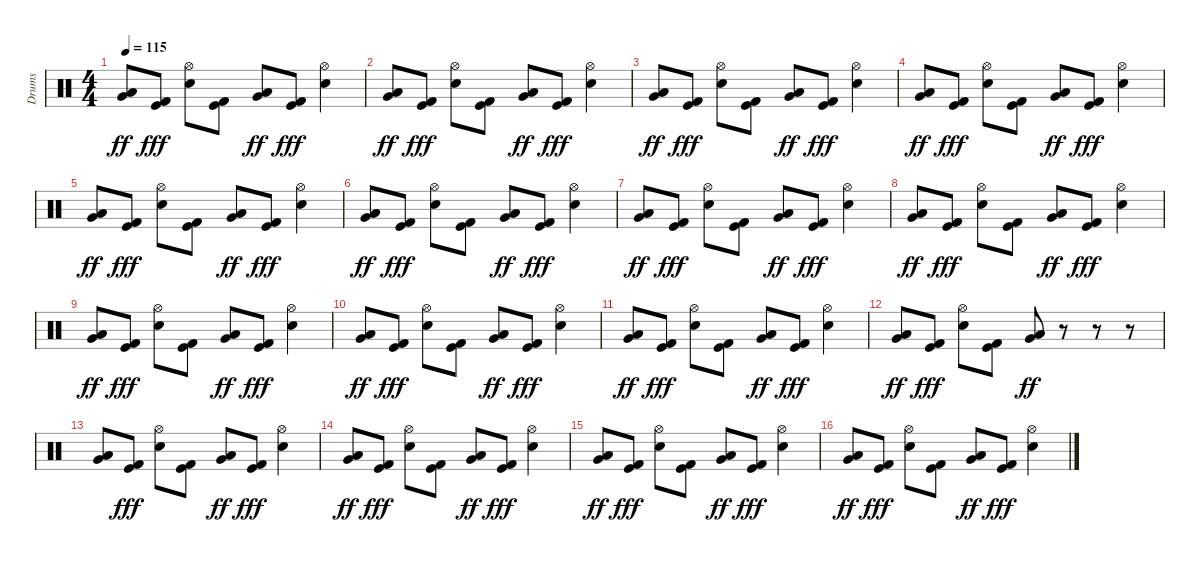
\track ("Drums" "Drums") {instrument percussion}
\staff {score}
\articulation defaults
\ts (4 4)
\tempo 115
\clef neutral
\ks c
("Low Tom (hit)" "Very Low Tom (hit)").8{bd 120 dy ff} ("Kick (hit)" "Kick (hit) 2").8{dy fff} ("Hi-Hat (open)" "Electric Snare (hit)").8 ("Kick (hit)" "Kick (hit) 2").8 ("Low Tom (hit)" "Very Low Tom (hit)").8{bd 120 dy ff} ("Kick (hit)" "Kick (hit) 2").8{dy fff} ("Hi-Hat (open)" "Electric Snare (hit)").4 |
("Low Tom (hit)" "Very Low Tom (hit)").8{bd 120 dy ff} ("Kick (hit)" "Kick (hit) 2").8{dy fff} ("Hi-Hat (open)" "Electric Snare (hit)").8 ("Kick (hit)" "Kick (hit) 2").8 ("Low Tom (hit)" "Very Low Tom (hit)").8{bd 120 dy ff} ("Kick (hit)" "Kick (hit) 2").8{dy fff} ("Hi-Hat (open)" "Electric Snare (hit)").4 |
("Low Tom (hit)" "Very Low Tom (hit)").8{bd 120 dy ff} ("Kick (hit)" "Kick (hit) 2").8{dy fff} ("Hi-Hat (open)" "Electric Snare (hit)").8 ("Kick (hit)" "Kick (hit) 2").8 ("Low Tom (hit)" "Very Low Tom (hit)").8{bd 120 dy ff} ("Kick (hit)" "Kick (hit) 2").8{dy fff} ("Hi-Hat (open)" "Electric Snare (hit)").4 |
("Low Tom (hit)" "Very Low Tom (hit)").8{bd 120 dy ff} ("Kick (hit)" "Kick (hit) 2").8{dy fff} ("Hi-Hat (open)" "Electric Snare (hit)").8 ("Kick (hit)" "Kick (hit) 2").8 ("Low Tom (hit)" "Very Low Tom (hit)").8{bd 120 dy ff} ("Kick (hit)" "Kick (hit) 2").8{dy fff} ("Hi-Hat (open)" "Electric Snare (hit)").4 |
("Low Tom (hit)" "Very Low Tom (hit)").8{bd 120 dy ff} ("Kick (hit)" "Kick (hit) 2").8{dy fff} ("Hi-Hat (open)" "Electric Snare (hit)").8 ("Kick (hit)" "Kick (hit) 2").8 ("Low Tom (hit)" "Very Low Tom (hit)").8{bd 120 dy ff} ("Kick (hit)" "Kick (hit) 2").8{dy fff} ("Hi-Hat (open)" "Electric Snare (hit)").4 |
("Low Tom (hit)" "Very Low Tom (hit)").8{bd 120 dy ff} ("Kick (hit)" "Kick (hit) 2").8{dy fff} ("Hi-Hat (open)" "Electric Snare (hit)").8 ("Kick (hit)" "Kick (hit) 2").8 ("Low Tom (hit)" "Very Low Tom (hit)").8{bd 120 dy ff} ("Kick (hit)" "Kick (hit) 2").8{dy fff} ("Hi-Hat (open)" "Electric Snare (hit)").4 |
("Low Tom (hit)" "Very Low Tom (hit)").8{bd 120 dy ff} ("Kick (hit)" "Kick (hit) 2").8{dy fff} ("Hi-Hat (open)" "Electric Snare (hit)").8 ("Kick (hit)" "Kick (hit) 2").8 ("Low Tom (hit)" "Very Low Tom (hit)").8{bd 120 dy ff} ("Kick (hit)" "Kick (hit) 2").8{dy fff} ("Hi-Hat (open)" "Electric Snare (hit)").4 |
("Low Tom (hit)" "Very Low Tom (hit)").8{bd 120 dy ff} ("Kick (hit)" "Kick (hit) 2").8{dy fff} ("Hi-Hat (open)" "Electric Snare (hit)").8 ("Kick (hit)" "Kick (hit) 2").8 ("Low Tom (hit)" "Very Low Tom (hit)").8{bd 120 dy ff} ("Kick (hit)" "Kick (hit) 2").8{dy fff} ("Hi-Hat (open)" "Electric Snare (hit)").4 |
("Low Tom (hit)" "Very Low Tom (hit)").8{bd 120 dy ff} ("Kick (hit)" "Kick (hit) 2").8{dy fff} ("Hi-Hat (open)" "Electric Snare (hit)").8 ("Kick (hit)" "Kick (hit) 2").8 ("Low Tom (hit)" "Very Low Tom (hit)").8{bd 120 dy ff} ("Kick (hit)" "Kick (hit) 2").8{dy fff} ("Hi-Hat (open)" "Electric Snare (hit)").4 |
("Low Tom (hit)" "Very Low Tom (hit)").8{bd 120 dy ff} ("Kick (hit)" "Kick (hit) 2").8{dy fff} ("Hi-Hat (open)" "Electric Snare (hit)").8 ("Kick (hit)" "Kick (hit) 2").8 ("Low Tom (hit)" "Very Low Tom (hit)").8{bd 120 dy ff} ("Kick (hit)" "Kick (hit) 2").8{dy fff} ("Hi-Hat (open)" "Electric Snare (hit)").4 |
("Low Tom (hit)" "Very Low Tom (hit)").8{bd 120 dy ff} ("Kick (hit)" "Kick (hit) 2").8{dy fff} ("Hi-Hat (open)" "Electric Snare (hit)").8 ("Kick (hit)" "Kick (hit) 2").8 ("Low Tom (hit)" "Very Low Tom (hit)").8{bd 120 dy ff} ("Kick (hit)" "Kick (hit) 2").8{dy fff} ("Hi-Hat (open)" "Electric Snare (hit)").4 |
("Low Tom (hit)" "Very Low Tom (hit)").8{bd 120 dy ff} ("Kick (hit)" "Kick (hit) 2").8{dy fff} ("Hi-Hat (open)" "Electric Snare (hit)").8 ("Kick (hit)" "Kick (hit) 2").8 ("Low Tom (hit)" "Very Low Tom (hit)").8{bd 120 dy ff} r.8 r.8 r.8 |
("Low Tom (hit)" "Very Low Tom (hit)").8{bd 120} ("Kick (hit)" "Kick (hit) 2").8{dy fff} ("Hi-Hat (open)" "Electric Snare (hit)").8 ("Kick (hit)" "Kick (hit) 2").8 ("Low Tom (hit)" "Very Low Tom (hit)").8{bd 120 dy ff} ("Kick (hit)" "Kick (hit) 2").8{dy fff} ("Hi-Hat (open)" "Electric Snare (hit)").4 |
("Low Tom (hit)" "Very Low Tom (hit)").8{bd 120 dy ff} ("Kick (hit)" "Kick (hit) 2").8{dy fff} ("Hi-Hat (open)" "Electric Snare (hit)").8 ("Kick (hit)" "Kick (hit) 2").8 ("Low Tom (hit)" "Very Low Tom (hit)").8{bd 120 dy ff} ("Kick (hit)" "Kick (hit) 2").8{dy fff} ("Hi-Hat (open)" "Electric Snare (hit)").4 |
("Low Tom (hit)" "Very Low Tom (hit)").8{bd 120 dy ff} ("Kick (hit)" "Kick (hit) 2").8{dy fff} ("Hi-Hat (open)" "Electric Snare (hit)").8 ("Kick (hit)" "Kick (hit) 2").8 ("Low Tom (hit)" "Very Low Tom (hit)").8{bd 120 dy ff} ("Kick (hit)" "Kick (hit) 2").8{dy fff} ("Hi-Hat (open)" "Electric Snare (hit)").4 |
("Low Tom (hit)" "Very Low Tom (hit)").8{bd 120 dy ff} ("Kick (hit)" "Kick (hit) 2").8{dy fff} ("Hi-Hat (open)" "Electric Snare (hit)").8 ("Kick (hit)" "Kick (hit) 2").8 ("Low Tom (hit)" "Very Low Tom (hit)").8{bd 120 dy ff} ("Kick (hit)" "Kick (hit) 2").8{dy fff} ("Hi-Hat (open)" "Electric Snare (hit)").4
